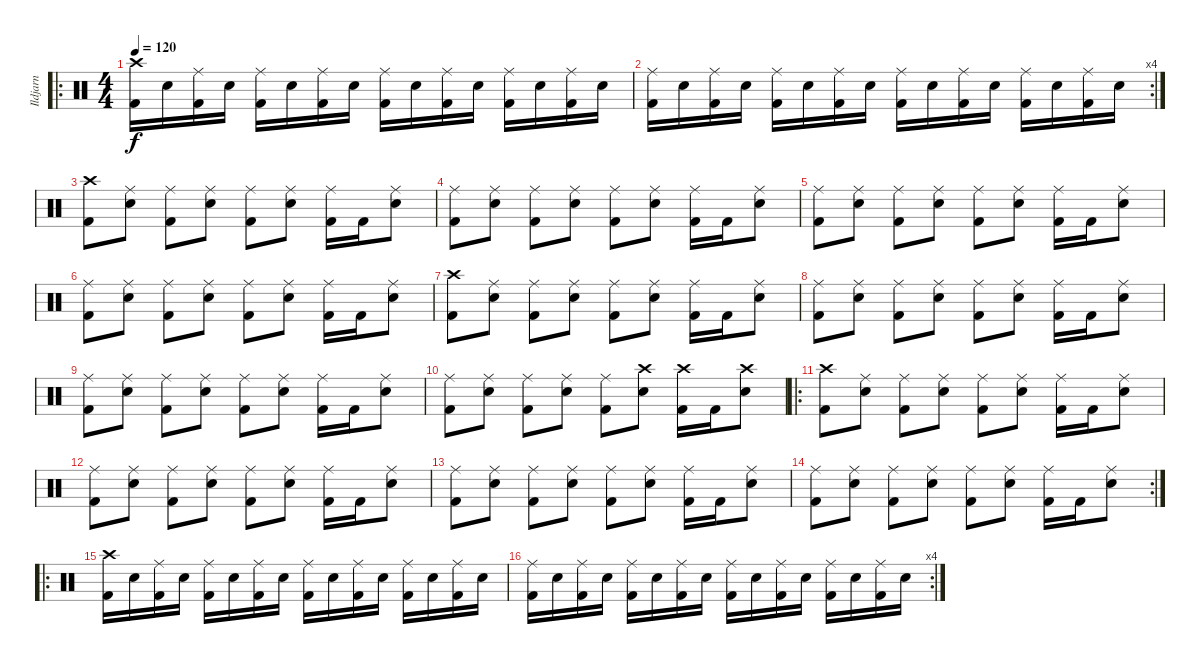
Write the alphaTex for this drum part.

\track ("Ildjarn" "Ildjarn") {instrument percussion}
\staff {score}
\articulation defaults
\ro
\ts (4 4)
\tempo 120
\clef neutral
\ks c
("Crash high (hit)" "Kick (hit) 2").16{dy f} "Snare (hit) 2".16 ("Ride (middle)" "Kick (hit) 2").16 "Snare (hit) 2".16 ("Ride (middle)" "Kick (hit) 2").16 "Snare (hit) 2".16 ("Ride (middle)" "Kick (hit) 2").16 "Snare (hit) 2".16 ("Ride (middle)" "Kick (hit) 2").16 "Snare (hit) 2".16 ("Ride (middle)" "Kick (hit) 2").16 "Snare (hit) 2".16 ("Ride (middle)" "Kick (hit) 2").16 "Snare (hit) 2".16 ("Ride (middle)" "Kick (hit) 2").16 "Snare (hit) 2".16 |
\rc 4
("Ride (middle)" "Kick (hit) 2").16 "Snare (hit) 2".16 ("Ride (middle)" "Kick (hit) 2").16 "Snare (hit) 2".16 ("Ride (middle)" "Kick (hit) 2").16 "Snare (hit) 2".16 ("Ride (middle)" "Kick (hit) 2").16 "Snare (hit) 2".16 ("Ride (middle)" "Kick (hit) 2").16 "Snare (hit) 2".16 ("Ride (middle)" "Kick (hit) 2").16 "Snare (hit) 2".16 ("Ride (middle)" "Kick (hit) 2").16 "Snare (hit) 2".16 ("Ride (middle)" "Kick (hit) 2").16 "Snare (hit) 2".16 |
("Crash high (hit)" "Kick (hit) 2").8 ("Ride (middle)" "Snare (hit) 2").8 ("Ride (middle)" "Kick (hit) 2").8 ("Ride (middle)" "Snare (hit) 2").8 ("Ride (middle)" "Kick (hit) 2").8 ("Ride (middle)" "Snare (hit) 2").8 ("Ride (middle)" "Kick (hit) 2").16 "Kick (hit) 2".16 ("Ride (middle)" "Snare (hit) 2").8 |
("Ride (middle)" "Kick (hit) 2").8 ("Ride (middle)" "Snare (hit) 2").8 ("Ride (middle)" "Kick (hit) 2").8 ("Ride (middle)" "Snare (hit) 2").8 ("Ride (middle)" "Kick (hit) 2").8 ("Ride (middle)" "Snare (hit) 2").8 ("Ride (middle)" "Kick (hit) 2").16 "Kick (hit) 2".16 ("Ride (middle)" "Snare (hit) 2").8 |
("Ride (middle)" "Kick (hit) 2").8 ("Ride (middle)" "Snare (hit) 2").8 ("Ride (middle)" "Kick (hit) 2").8 ("Ride (middle)" "Snare (hit) 2").8 ("Ride (middle)" "Kick (hit) 2").8 ("Ride (middle)" "Snare (hit) 2").8 ("Ride (middle)" "Kick (hit) 2").16 "Kick (hit) 2".16 ("Ride (middle)" "Snare (hit) 2").8 |
("Ride (middle)" "Kick (hit) 2").8 ("Ride (middle)" "Snare (hit) 2").8 ("Ride (middle)" "Kick (hit) 2").8 ("Ride (middle)" "Snare (hit) 2").8 ("Ride (middle)" "Kick (hit) 2").8 ("Ride (middle)" "Snare (hit) 2").8 ("Ride (middle)" "Kick (hit) 2").16 "Kick (hit) 2".16 ("Ride (middle)" "Snare (hit) 2").8 |
("Crash high (hit)" "Kick (hit) 2").8 ("Ride (middle)" "Snare (hit) 2").8 ("Ride (middle)" "Kick (hit) 2").8 ("Ride (middle)" "Snare (hit) 2").8 ("Ride (middle)" "Kick (hit) 2").8 ("Ride (middle)" "Snare (hit) 2").8 ("Ride (middle)" "Kick (hit) 2").16 "Kick (hit) 2".16 ("Ride (middle)" "Snare (hit) 2").8 |
("Ride (middle)" "Kick (hit) 2").8 ("Ride (middle)" "Snare (hit) 2").8 ("Ride (middle)" "Kick (hit) 2").8 ("Ride (middle)" "Snare (hit) 2").8 ("Ride (middle)" "Kick (hit) 2").8 ("Ride (middle)" "Snare (hit) 2").8 ("Ride (middle)" "Kick (hit) 2").16 "Kick (hit) 2".16 ("Ride (middle)" "Snare (hit) 2").8 |
("Ride (middle)" "Kick (hit) 2").8 ("Ride (middle)" "Snare (hit) 2").8 ("Ride (middle)" "Kick (hit) 2").8 ("Ride (middle)" "Snare (hit) 2").8 ("Ride (middle)" "Kick (hit) 2").8 ("Ride (middle)" "Snare (hit) 2").8 ("Ride (middle)" "Kick (hit) 2").16 "Kick (hit) 2".16 ("Ride (middle)" "Snare (hit) 2").8 |
("Ride (middle)" "Kick (hit) 2").8 ("Ride (middle)" "Snare (hit) 2").8 ("Ride (middle)" "Kick (hit) 2").8 ("Ride (middle)" "Snare (hit) 2").8 ("Ride (middle)" "Kick (hit) 2").8 ("Crash high (hit)" "Snare (hit) 2").8 ("Crash high (hit)" "Kick (hit) 2").16 "Kick (hit) 2".16 ("Crash high (hit)" "Snare (hit) 2").8 |
\ro
("Crash high (hit)" "Kick (hit) 2").8 ("Ride (middle)" "Snare (hit) 2").8 ("Ride (middle)" "Kick (hit) 2").8 ("Ride (middle)" "Snare (hit) 2").8 ("Ride (middle)" "Kick (hit) 2").8 ("Ride (middle)" "Snare (hit) 2").8 ("Ride (middle)" "Kick (hit) 2").16 "Kick (hit) 2".16 ("Ride (middle)" "Snare (hit) 2").8 |
("Ride (middle)" "Kick (hit) 2").8 ("Ride (middle)" "Snare (hit) 2").8 ("Ride (middle)" "Kick (hit) 2").8 ("Ride (middle)" "Snare (hit) 2").8 ("Ride (middle)" "Kick (hit) 2").8 ("Ride (middle)" "Snare (hit) 2").8 ("Ride (middle)" "Kick (hit) 2").16 "Kick (hit) 2".16 ("Ride (middle)" "Snare (hit) 2").8 |
("Ride (middle)" "Kick (hit) 2").8 ("Ride (middle)" "Snare (hit) 2").8 ("Ride (middle)" "Kick (hit) 2").8 ("Ride (middle)" "Snare (hit) 2").8 ("Ride (middle)" "Kick (hit) 2").8 ("Ride (middle)" "Snare (hit) 2").8 ("Ride (middle)" "Kick (hit) 2").16 "Kick (hit) 2".16 ("Ride (middle)" "Snare (hit) 2").8 |
\rc 2
("Ride (middle)" "Kick (hit) 2").8 ("Ride (middle)" "Snare (hit) 2").8 ("Ride (middle)" "Kick (hit) 2").8 ("Ride (middle)" "Snare (hit) 2").8 ("Ride (middle)" "Kick (hit) 2").8 ("Ride (middle)" "Snare (hit) 2").8 ("Ride (middle)" "Kick (hit) 2").16 "Kick (hit) 2".16 ("Ride (middle)" "Snare (hit) 2").8 |
\ro
("Crash high (hit)" "Kick (hit) 2").16 "Snare (hit) 2".16 ("Ride (middle)" "Kick (hit) 2").16 "Snare (hit) 2".16 ("Ride (middle)" "Kick (hit) 2").16 "Snare (hit) 2".16 ("Ride (middle)" "Kick (hit) 2").16 "Snare (hit) 2".16 ("Ride (middle)" "Kick (hit) 2").16 "Snare (hit) 2".16 ("Ride (middle)" "Kick (hit) 2").16 "Snare (hit) 2".16 ("Ride (middle)" "Kick (hit) 2").16 "Snare (hit) 2".16 ("Ride (middle)" "Kick (hit) 2").16 "Snare (hit) 2".16 |
\rc 4
("Ride (middle)" "Kick (hit) 2").16 "Snare (hit) 2".16 ("Ride (middle)" "Kick (hit) 2").16 "Snare (hit) 2".16 ("Ride (middle)" "Kick (hit) 2").16 "Snare (hit) 2".16 ("Ride (middle)" "Kick (hit) 2").16 "Snare (hit) 2".16 ("Ride (middle)" "Kick (hit) 2").16 "Snare (hit) 2".16 ("Ride (middle)" "Kick (hit) 2").16 "Snare (hit) 2".16 ("Ride (middle)" "Kick (hit) 2").16 "Snare (hit) 2".16 ("Ride (middle)" "Kick (hit) 2").16 "Snare (hit) 2".16
